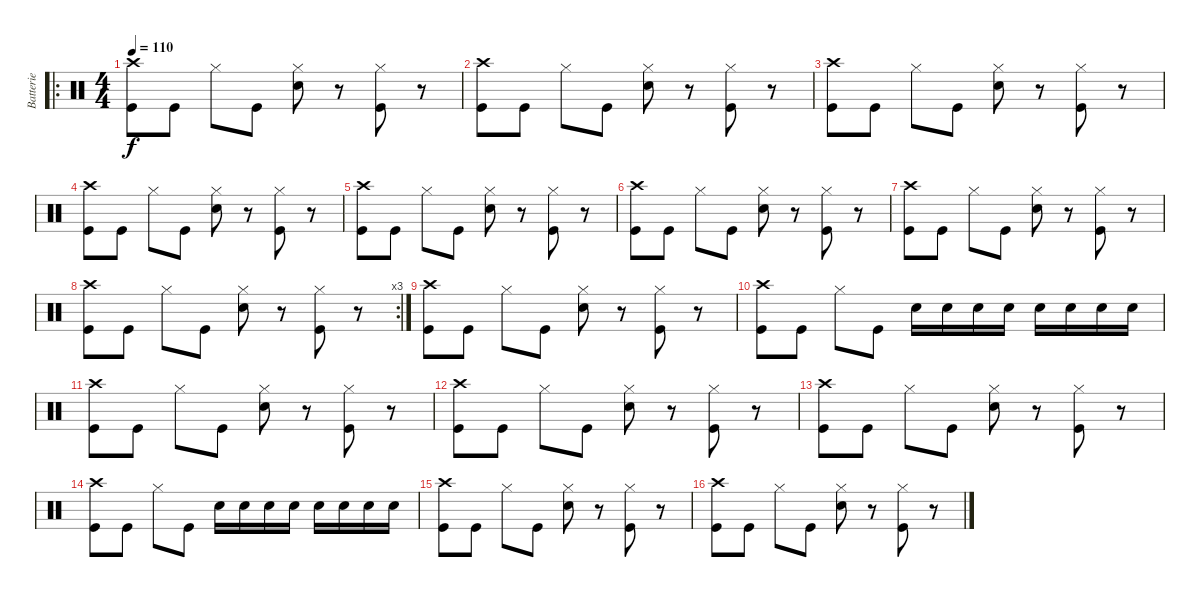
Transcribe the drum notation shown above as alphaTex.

\track ("Batterie" "Batterie") {instrument percussion}
\staff {score}
\articulation defaults
\ro
\ts (4 4)
\tempo 110
\clef neutral
\ks c
("Crash high (hit)" "Kick (hit)").8{dy f} "Kick (hit)".8 "Hi-Hat (closed)".8 "Kick (hit)".8 ("Hi-Hat (closed)" "Snare (hit) 2").8 r.8 ("Hi-Hat (closed)" "Kick (hit)").8 r.8 |
("Crash high (hit)" "Kick (hit)").8 "Kick (hit)".8 "Hi-Hat (closed)".8 "Kick (hit)".8 ("Hi-Hat (closed)" "Snare (hit) 2").8 r.8 ("Hi-Hat (closed)" "Kick (hit)").8 r.8 |
("Crash high (hit)" "Kick (hit)").8 "Kick (hit)".8 "Hi-Hat (closed)".8 "Kick (hit)".8 ("Hi-Hat (closed)" "Snare (hit) 2").8 r.8 ("Hi-Hat (closed)" "Kick (hit)").8 r.8 |
("Crash high (hit)" "Kick (hit)").8 "Kick (hit)".8 "Hi-Hat (closed)".8 "Kick (hit)".8 ("Hi-Hat (closed)" "Snare (hit) 2").8 r.8 ("Hi-Hat (closed)" "Kick (hit)").8 r.8 |
("Crash high (hit)" "Kick (hit)").8 "Kick (hit)".8 "Hi-Hat (closed)".8 "Kick (hit)".8 ("Hi-Hat (closed)" "Snare (hit) 2").8 r.8 ("Hi-Hat (closed)" "Kick (hit)").8 r.8 |
("Crash high (hit)" "Kick (hit)").8 "Kick (hit)".8 "Hi-Hat (closed)".8 "Kick (hit)".8 ("Hi-Hat (closed)" "Snare (hit) 2").8 r.8 ("Hi-Hat (closed)" "Kick (hit)").8 r.8 |
("Crash high (hit)" "Kick (hit)").8 "Kick (hit)".8 "Hi-Hat (closed)".8 "Kick (hit)".8 ("Hi-Hat (closed)" "Snare (hit) 2").8 r.8 ("Hi-Hat (closed)" "Kick (hit)").8 r.8 |
\rc 3
("Crash high (hit)" "Kick (hit)").8 "Kick (hit)".8 "Hi-Hat (closed)".8 "Kick (hit)".8 ("Hi-Hat (closed)" "Snare (hit) 2").8 r.8 ("Hi-Hat (closed)" "Kick (hit)").8 r.8 |
("Crash high (hit)" "Kick (hit)").8 "Kick (hit)".8 "Hi-Hat (closed)".8 "Kick (hit)".8 ("Hi-Hat (closed)" "Snare (hit) 2").8 r.8 ("Hi-Hat (closed)" "Kick (hit)").8 r.8 |
("Crash high (hit)" "Kick (hit)").8 "Kick (hit)".8 "Hi-Hat (closed)".8 "Kick (hit)".8 "Snare (hit) 2".16 "Snare (hit) 2".16 "Snare (hit) 2".16 "Snare (hit) 2".16 "Snare (hit) 2".16 "Snare (hit) 2".16 "Snare (hit) 2".16 "Snare (hit) 2".16 |
("Crash high (hit)" "Kick (hit)").8 "Kick (hit)".8 "Hi-Hat (closed)".8 "Kick (hit)".8 ("Hi-Hat (closed)" "Snare (hit) 2").8 r.8 ("Hi-Hat (closed)" "Kick (hit)").8 r.8 |
("Crash high (hit)" "Kick (hit)").8 "Kick (hit)".8 "Hi-Hat (closed)".8 "Kick (hit)".8 ("Hi-Hat (closed)" "Snare (hit) 2").8 r.8 ("Hi-Hat (closed)" "Kick (hit)").8 r.8 |
("Crash high (hit)" "Kick (hit)").8 "Kick (hit)".8 "Hi-Hat (closed)".8 "Kick (hit)".8 ("Hi-Hat (closed)" "Snare (hit) 2").8 r.8 ("Hi-Hat (closed)" "Kick (hit)").8 r.8 |
("Crash high (hit)" "Kick (hit)").8 "Kick (hit)".8 "Hi-Hat (closed)".8 "Kick (hit)".8 "Snare (hit) 2".16 "Snare (hit) 2".16 "Snare (hit) 2".16 "Snare (hit) 2".16 "Snare (hit) 2".16 "Snare (hit) 2".16 "Snare (hit) 2".16 "Snare (hit) 2".16 |
("Crash high (hit)" "Kick (hit)").8 "Kick (hit)".8 "Hi-Hat (closed)".8 "Kick (hit)".8 ("Hi-Hat (closed)" "Snare (hit) 2").8 r.8 ("Hi-Hat (closed)" "Kick (hit)").8 r.8 |
("Crash high (hit)" "Kick (hit)").8 "Kick (hit)".8 "Hi-Hat (closed)".8 "Kick (hit)".8 ("Hi-Hat (closed)" "Snare (hit) 2").8 r.8 ("Hi-Hat (closed)" "Kick (hit)").8 r.8
